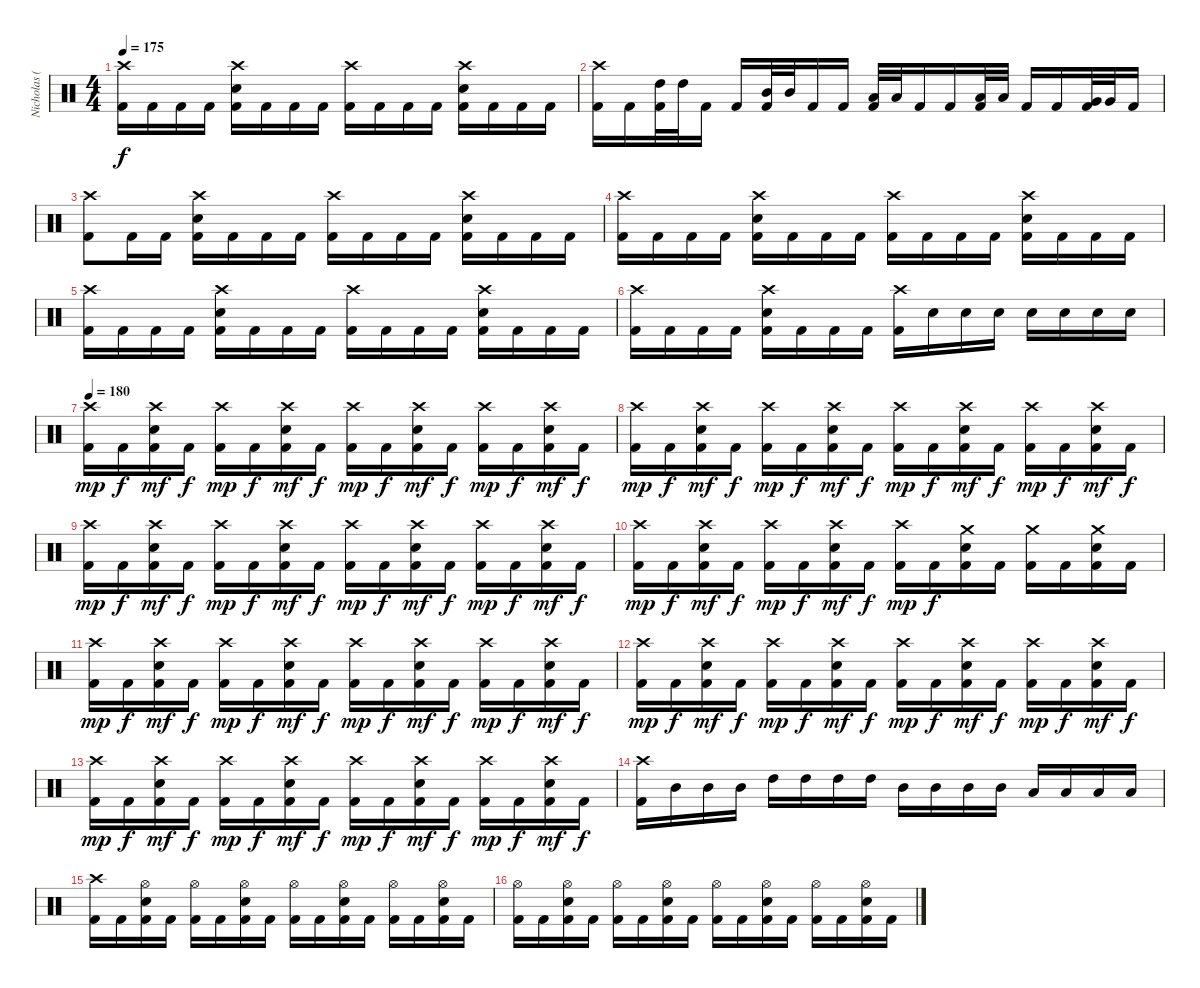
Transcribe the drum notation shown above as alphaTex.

\track ("Nicholas (Drums)" "Nicholas (") {instrument percussion}
\staff {score}
\articulation defaults
\ts (4 4)
\tempo 175
\clef neutral
\ks c
("Crash high (hit)" "Kick (hit) 2").16{dy f} "Kick (hit) 2".16 "Kick (hit) 2".16 "Kick (hit) 2".16 ("Crash high (hit)" "Electric Snare (hit)" "Kick (hit) 2").16 "Kick (hit) 2".16 "Kick (hit) 2".16 "Kick (hit) 2".16 ("Crash high (hit)" "Kick (hit) 2").16 "Kick (hit) 2".16 "Kick (hit) 2".16 "Kick (hit) 2".16 ("Crash high (hit)" "Electric Snare (hit)" "Kick (hit) 2").16 "Kick (hit) 2".16 "Kick (hit) 2".16 "Kick (hit) 2".16 |
("Crash high (hit)" "Kick (hit) 2").16 "Kick (hit) 2".16 ("High Tom (hit)" "Kick (hit) 2").32 "High Tom (hit)".32 "Kick (hit) 2".16 "Kick (hit) 2".16 ("Mid Tom (hit)" "Kick (hit) 2").32 "Mid Tom (hit)".32 "Kick (hit) 2".16 "Kick (hit) 2".16 ("Low Tom (hit)" "Kick (hit) 2").32 "Low Tom (hit)".32 "Kick (hit) 2".16 "Kick (hit) 2".16 ("Low Tom (hit)" "Kick (hit) 2").32 "Low Tom (hit)".32 "Kick (hit) 2".16 "Kick (hit) 2".16 ("Very Low Tom (hit)" "Kick (hit) 2").32 "Very Low Tom (hit)".32 "Kick (hit) 2".16 |
("Crash high (hit)" "Kick (hit) 2").8 "Kick (hit) 2".16 "Kick (hit) 2".16 ("Crash high (hit)" "Electric Snare (hit)" "Kick (hit) 2").16 "Kick (hit) 2".16 "Kick (hit) 2".16 "Kick (hit) 2".16 ("Crash high (hit)" "Kick (hit) 2").16 "Kick (hit) 2".16 "Kick (hit) 2".16 "Kick (hit) 2".16 ("Crash high (hit)" "Electric Snare (hit)" "Kick (hit) 2").16 "Kick (hit) 2".16 "Kick (hit) 2".16 "Kick (hit) 2".16 |
("Crash high (hit)" "Kick (hit) 2").16 "Kick (hit) 2".16 "Kick (hit) 2".16 "Kick (hit) 2".16 ("Crash high (hit)" "Electric Snare (hit)" "Kick (hit) 2").16 "Kick (hit) 2".16 "Kick (hit) 2".16 "Kick (hit) 2".16 ("Crash high (hit)" "Kick (hit) 2").16 "Kick (hit) 2".16 "Kick (hit) 2".16 "Kick (hit) 2".16 ("Crash high (hit)" "Electric Snare (hit)" "Kick (hit) 2").16 "Kick (hit) 2".16 "Kick (hit) 2".16 "Kick (hit) 2".16 |
("Crash high (hit)" "Kick (hit) 2").16 "Kick (hit) 2".16 "Kick (hit) 2".16 "Kick (hit) 2".16 ("Crash high (hit)" "Electric Snare (hit)" "Kick (hit) 2").16 "Kick (hit) 2".16 "Kick (hit) 2".16 "Kick (hit) 2".16 ("Crash high (hit)" "Kick (hit) 2").16 "Kick (hit) 2".16 "Kick (hit) 2".16 "Kick (hit) 2".16 ("Crash high (hit)" "Electric Snare (hit)" "Kick (hit) 2").16 "Kick (hit) 2".16 "Kick (hit) 2".16 "Kick (hit) 2".16 |
("Crash high (hit)" "Kick (hit) 2").16 "Kick (hit) 2".16 "Kick (hit) 2".16 "Kick (hit) 2".16 ("Crash high (hit)" "Electric Snare (hit)" "Kick (hit) 2").16 "Kick (hit) 2".16 "Kick (hit) 2".16 "Kick (hit) 2".16 ("Crash high (hit)" "Kick (hit) 2").16 "Electric Snare (hit)".16 "Electric Snare (hit)".16 "Electric Snare (hit)".16 "Electric Snare (hit)".16 "Electric Snare (hit)".16 "Electric Snare (hit)".16 "Electric Snare (hit)".16 |
\tempo 180
("Crash high (hit)" "Kick (hit) 2").16{dy mp} "Kick (hit) 2".16{dy f} ("Crash high (hit)" "Electric Snare (hit)" "Kick (hit) 2").16{dy mf} "Kick (hit) 2".16{dy f} ("Crash high (hit)" "Kick (hit) 2").16{dy mp} "Kick (hit) 2".16{dy f} ("Crash high (hit)" "Electric Snare (hit)" "Kick (hit) 2").16{dy mf} "Kick (hit) 2".16{dy f} ("Crash high (hit)" "Kick (hit) 2").16{dy mp} "Kick (hit) 2".16{dy f} ("Crash high (hit)" "Electric Snare (hit)" "Kick (hit) 2").16{dy mf} "Kick (hit) 2".16{dy f} ("Crash high (hit)" "Kick (hit) 2").16{dy mp} "Kick (hit) 2".16{dy f} ("Crash high (hit)" "Electric Snare (hit)" "Kick (hit) 2").16{dy mf} "Kick (hit) 2".16{dy f} |
("Crash high (hit)" "Kick (hit) 2").16{dy mp} "Kick (hit) 2".16{dy f} ("Crash high (hit)" "Electric Snare (hit)" "Kick (hit) 2").16{dy mf} "Kick (hit) 2".16{dy f} ("Crash high (hit)" "Kick (hit) 2").16{dy mp} "Kick (hit) 2".16{dy f} ("Crash high (hit)" "Electric Snare (hit)" "Kick (hit) 2").16{dy mf} "Kick (hit) 2".16{dy f} ("Crash high (hit)" "Kick (hit) 2").16{dy mp} "Kick (hit) 2".16{dy f} ("Crash high (hit)" "Electric Snare (hit)" "Kick (hit) 2").16{dy mf} "Kick (hit) 2".16{dy f} ("Crash high (hit)" "Kick (hit) 2").16{dy mp} "Kick (hit) 2".16{dy f} ("Crash high (hit)" "Electric Snare (hit)" "Kick (hit) 2").16{dy mf} "Kick (hit) 2".16{dy f} |
("Crash high (hit)" "Kick (hit) 2").16{dy mp} "Kick (hit) 2".16{dy f} ("Crash high (hit)" "Electric Snare (hit)" "Kick (hit) 2").16{dy mf} "Kick (hit) 2".16{dy f} ("Crash high (hit)" "Kick (hit) 2").16{dy mp} "Kick (hit) 2".16{dy f} ("Crash high (hit)" "Electric Snare (hit)" "Kick (hit) 2").16{dy mf} "Kick (hit) 2".16{dy f} ("Crash high (hit)" "Kick (hit) 2").16{dy mp} "Kick (hit) 2".16{dy f} ("Crash high (hit)" "Electric Snare (hit)" "Kick (hit) 2").16{dy mf} "Kick (hit) 2".16{dy f} ("Crash high (hit)" "Kick (hit) 2").16{dy mp} "Kick (hit) 2".16{dy f} ("Crash high (hit)" "Electric Snare (hit)" "Kick (hit) 2").16{dy mf} "Kick (hit) 2".16{dy f} |
("Crash high (hit)" "Kick (hit) 2").16{dy mp} "Kick (hit) 2".16{dy f} ("Crash high (hit)" "Electric Snare (hit)" "Kick (hit) 2").16{dy mf} "Kick (hit) 2".16{dy f} ("Crash high (hit)" "Kick (hit) 2").16{dy mp} "Kick (hit) 2".16{dy f} ("Crash high (hit)" "Electric Snare (hit)" "Kick (hit) 2").16{dy mf} "Kick (hit) 2".16{dy f} ("Crash high (hit)" "Kick (hit) 2").16{dy mp} "Kick (hit) 2".16{dy f} ("Crash medium (hit)" "Electric Snare (hit)" "Kick (hit) 2").16 "Kick (hit) 2".16 ("Crash medium (hit)" "Kick (hit) 2").16 "Kick (hit) 2".16 ("Crash medium (hit)" "Electric Snare (hit)" "Kick (hit) 2").16 "Kick (hit) 2".16 |
("Crash high (hit)" "Kick (hit) 2").16{dy mp} "Kick (hit) 2".16{dy f} ("Crash high (hit)" "Electric Snare (hit)" "Kick (hit) 2").16{dy mf} "Kick (hit) 2".16{dy f} ("Crash high (hit)" "Kick (hit) 2").16{dy mp} "Kick (hit) 2".16{dy f} ("Crash high (hit)" "Electric Snare (hit)" "Kick (hit) 2").16{dy mf} "Kick (hit) 2".16{dy f} ("Crash high (hit)" "Kick (hit) 2").16{dy mp} "Kick (hit) 2".16{dy f} ("Crash high (hit)" "Electric Snare (hit)" "Kick (hit) 2").16{dy mf} "Kick (hit) 2".16{dy f} ("Crash high (hit)" "Kick (hit) 2").16{dy mp} "Kick (hit) 2".16{dy f} ("Crash high (hit)" "Electric Snare (hit)" "Kick (hit) 2").16{dy mf} "Kick (hit) 2".16{dy f} |
("Crash high (hit)" "Kick (hit) 2").16{dy mp} "Kick (hit) 2".16{dy f} ("Crash high (hit)" "Electric Snare (hit)" "Kick (hit) 2").16{dy mf} "Kick (hit) 2".16{dy f} ("Crash high (hit)" "Kick (hit) 2").16{dy mp} "Kick (hit) 2".16{dy f} ("Crash high (hit)" "Electric Snare (hit)" "Kick (hit) 2").16{dy mf} "Kick (hit) 2".16{dy f} ("Crash high (hit)" "Kick (hit) 2").16{dy mp} "Kick (hit) 2".16{dy f} ("Crash high (hit)" "Electric Snare (hit)" "Kick (hit) 2").16{dy mf} "Kick (hit) 2".16{dy f} ("Crash high (hit)" "Kick (hit) 2").16{dy mp} "Kick (hit) 2".16{dy f} ("Crash high (hit)" "Electric Snare (hit)" "Kick (hit) 2").16{dy mf} "Kick (hit) 2".16{dy f} |
("Crash high (hit)" "Kick (hit) 2").16{dy mp} "Kick (hit) 2".16{dy f} ("Crash high (hit)" "Electric Snare (hit)" "Kick (hit) 2").16{dy mf} "Kick (hit) 2".16{dy f} ("Crash high (hit)" "Kick (hit) 2").16{dy mp} "Kick (hit) 2".16{dy f} ("Crash high (hit)" "Electric Snare (hit)" "Kick (hit) 2").16{dy mf} "Kick (hit) 2".16{dy f} ("Crash high (hit)" "Kick (hit) 2").16{dy mp} "Kick (hit) 2".16{dy f} ("Crash high (hit)" "Electric Snare (hit)" "Kick (hit) 2").16{dy mf} "Kick (hit) 2".16{dy f} ("Crash high (hit)" "Kick (hit) 2").16{dy mp} "Kick (hit) 2".16{dy f} ("Crash high (hit)" "Electric Snare (hit)" "Kick (hit) 2").16{dy mf} "Kick (hit) 2".16{dy f} |
("Crash high (hit)" "Kick (hit) 2").16 "Mid Tom (hit)".16 "Mid Tom (hit)".16 "Mid Tom (hit)".16 "High Tom (hit)".16 "High Tom (hit)".16 "High Tom (hit)".16 "High Tom (hit)".16 "Mid Tom (hit)".16 "Mid Tom (hit)".16 "Mid Tom (hit)".16 "Mid Tom (hit)".16 "Low Tom (hit)".16 "Low Tom (hit)".16 "Low Tom (hit)".16 "Low Tom (hit)".16 |
("Crash high (hit)" "Kick (hit) 2").16 "Kick (hit) 2".16 ("Hi-Hat (open)" "Electric Snare (hit)" "Kick (hit) 2").16 "Kick (hit) 2".16 ("Hi-Hat (open)" "Kick (hit) 2").16 "Kick (hit) 2".16 ("Hi-Hat (open)" "Electric Snare (hit)" "Kick (hit) 2").16 "Kick (hit) 2".16 ("Hi-Hat (open)" "Kick (hit) 2").16 "Kick (hit) 2".16 ("Hi-Hat (open)" "Electric Snare (hit)" "Kick (hit) 2").16 "Kick (hit) 2".16 ("Hi-Hat (open)" "Kick (hit) 2").16 "Kick (hit) 2".16 ("Hi-Hat (open)" "Electric Snare (hit)" "Kick (hit) 2").16 "Kick (hit) 2".16 |
("Hi-Hat (open)" "Kick (hit) 2").16 "Kick (hit) 2".16 ("Hi-Hat (open)" "Electric Snare (hit)" "Kick (hit) 2").16 "Kick (hit) 2".16 ("Hi-Hat (open)" "Kick (hit) 2").16 "Kick (hit) 2".16 ("Hi-Hat (open)" "Electric Snare (hit)" "Kick (hit) 2").16 "Kick (hit) 2".16 ("Hi-Hat (open)" "Kick (hit) 2").16 "Kick (hit) 2".16 ("Hi-Hat (open)" "Electric Snare (hit)" "Kick (hit) 2").16 "Kick (hit) 2".16 ("Hi-Hat (open)" "Kick (hit) 2").16 "Kick (hit) 2".16 ("Hi-Hat (open)" "Electric Snare (hit)" "Kick (hit) 2").16 "Kick (hit) 2".16
